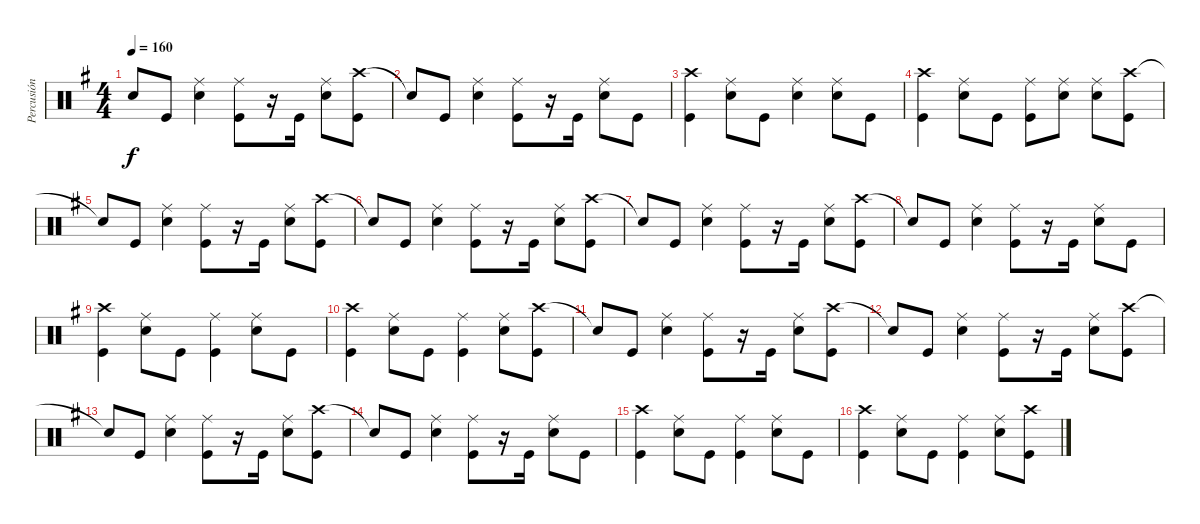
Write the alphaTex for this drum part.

\track ("Percusión" "Percusión") {instrument percussion}
\staff {score}
\articulation defaults
\ts (4 4)
\tempo 160
\clef neutral
\ks g "Snare (hit)"{t}.8{dy f} "Kick (hit)".8
("Ride (middle)" "Snare (hit) 2").4 ("Ride (middle)" "Kick (hit)").8 r.16 "Kick (hit)".16 ("Ride (middle)" "Snare (hit) 2").8 ("Crash high (hit)" "Kick (hit)").8 |
"Snare (hit)"{t}.8 "Kick (hit)".8 ("Ride (middle)" "Snare (hit) 2").4 ("Ride (middle)" "Kick (hit)").8 r.16 "Kick (hit)".16 ("Ride (middle)" "Snare (hit) 2").8 "Kick (hit)".8 |
("Crash high (hit)" "Kick (hit)").4 ("Ride (middle)" "Snare (hit) 2").8 "Kick (hit)".8 ("Ride (middle)" "Snare (hit) 2").4 ("Ride (middle)" "Snare (hit) 2").8 "Kick (hit)".8 |
("Crash high (hit)" "Kick (hit)").4 ("Ride (middle)" "Snare (hit) 2").8 "Kick (hit)".8 ("Ride (middle)" "Kick (hit)").8 ("Ride (middle)" "Snare (hit) 2").8 ("Ride (middle)" "Snare (hit) 2").8 ("Crash high (hit)" "Kick (hit)").8 |
"Snare (hit)"{t}.8 "Kick (hit)".8 ("Ride (middle)" "Snare (hit) 2").4 ("Ride (middle)" "Kick (hit)").8 r.16 "Kick (hit)".16 ("Ride (middle)" "Snare (hit) 2").8 ("Crash high (hit)" "Kick (hit)").8 |
"Snare (hit)"{t}.8 "Kick (hit)".8 ("Ride (middle)" "Snare (hit) 2").4 ("Ride (middle)" "Kick (hit)").8 r.16 "Kick (hit)".16 ("Ride (middle)" "Snare (hit) 2").8 ("Crash high (hit)" "Kick (hit)").8 |
"Snare (hit)"{t}.8 "Kick (hit)".8 ("Ride (middle)" "Snare (hit) 2").4 ("Ride (middle)" "Kick (hit)").8 r.16 "Kick (hit)".16 ("Ride (middle)" "Snare (hit) 2").8 ("Crash high (hit)" "Kick (hit)").8 |
"Snare (hit)"{t}.8 "Kick (hit)".8 ("Ride (middle)" "Snare (hit) 2").4 ("Ride (middle)" "Kick (hit)").8 r.16 "Kick (hit)".16 ("Ride (middle)" "Snare (hit) 2").8 "Kick (hit)".8 |
("Crash high (hit)" "Kick (hit)").4 ("Ride (middle)" "Snare (hit) 2").8 "Kick (hit)".8 ("Ride (middle)" "Kick (hit)").4 ("Ride (middle)" "Snare (hit) 2").8 "Kick (hit)".8 |
("Crash high (hit)" "Kick (hit)").4 ("Ride (middle)" "Snare (hit) 2").8 "Kick (hit)".8 ("Ride (middle)" "Kick (hit)").4 ("Ride (middle)" "Snare (hit) 2").8 ("Crash high (hit)" "Kick (hit)").8 |
"Snare (hit)"{t}.8 "Kick (hit)".8 ("Ride (middle)" "Snare (hit) 2").4 ("Ride (middle)" "Kick (hit)").8 r.16 "Kick (hit)".16 ("Ride (middle)" "Snare (hit) 2").8 ("Crash high (hit)" "Kick (hit)").8 |
"Snare (hit)"{t}.8 "Kick (hit)".8 ("Ride (middle)" "Snare (hit) 2").4 ("Ride (middle)" "Kick (hit)").8 r.16 "Kick (hit)".16 ("Ride (middle)" "Snare (hit) 2").8 ("Crash high (hit)" "Kick (hit)").8 |
"Snare (hit)"{t}.8 "Kick (hit)".8 ("Ride (middle)" "Snare (hit) 2").4 ("Ride (middle)" "Kick (hit)").8 r.16 "Kick (hit)".16 ("Ride (middle)" "Snare (hit) 2").8 ("Crash high (hit)" "Kick (hit)").8 |
"Snare (hit)"{t}.8 "Kick (hit)".8 ("Ride (middle)" "Snare (hit) 2").4 ("Ride (middle)" "Kick (hit)").8 r.16 "Kick (hit)".16 ("Ride (middle)" "Snare (hit) 2").8 "Kick (hit)".8 |
("Crash high (hit)" "Kick (hit)").4 ("Ride (middle)" "Snare (hit) 2").8 "Kick (hit)".8 ("Ride (middle)" "Kick (hit)").4 ("Ride (middle)" "Snare (hit) 2").8 "Kick (hit)".8 |
("Crash high (hit)" "Kick (hit)").4 ("Ride (middle)" "Snare (hit) 2").8 "Kick (hit)".8 ("Ride (middle)" "Kick (hit)").4 ("Ride (middle)" "Snare (hit) 2").8 ("Crash high (hit)" "Kick (hit)").8
